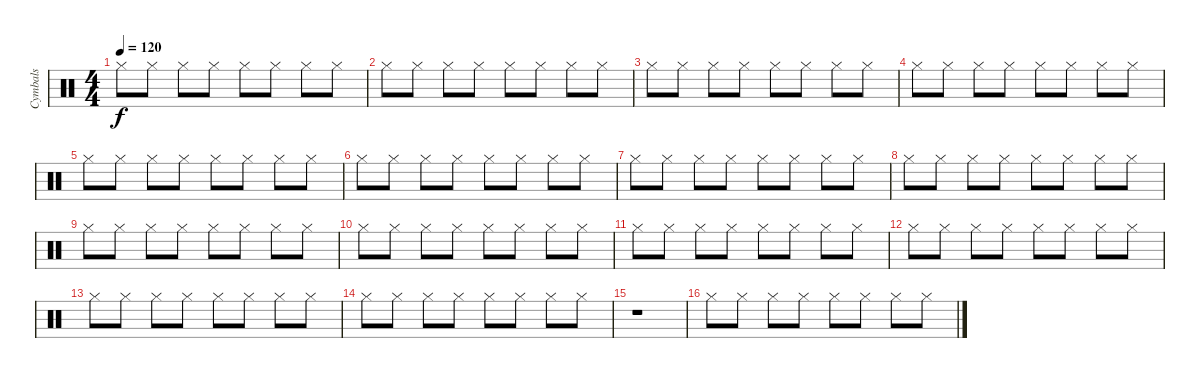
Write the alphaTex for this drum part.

\track ("Cymbals" "Cymbals") {instrument percussion}
\staff {score}
\articulation defaults
\ts (4 4)
\tempo 120
\clef neutral
\ks c "Hi-Hat (closed)".8{dy f} "Hi-Hat (closed)".8 "Hi-Hat (closed)".8 "Hi-Hat (closed)".8 "Hi-Hat (closed)".8 "Hi-Hat (closed)".8 "Hi-Hat (closed)".8 "Hi-Hat (closed)".8
|
"Hi-Hat (closed)".8 "Hi-Hat (closed)".8 "Hi-Hat (closed)".8 "Hi-Hat (closed)".8 "Hi-Hat (closed)".8 "Hi-Hat (closed)".8 "Hi-Hat (closed)".8 "Hi-Hat (closed)".8 |
"Hi-Hat (closed)".8 "Hi-Hat (closed)".8 "Hi-Hat (closed)".8 "Hi-Hat (closed)".8 "Hi-Hat (closed)".8 "Hi-Hat (closed)".8 "Hi-Hat (closed)".8 "Hi-Hat (closed)".8 |
"Hi-Hat (closed)".8 "Hi-Hat (closed)".8 "Hi-Hat (closed)".8 "Hi-Hat (closed)".8 "Hi-Hat (closed)".8 "Hi-Hat (closed)".8 "Hi-Hat (closed)".8 "Hi-Hat (closed)".8 |
"Hi-Hat (closed)".8 "Hi-Hat (closed)".8 "Hi-Hat (closed)".8 "Hi-Hat (closed)".8 "Hi-Hat (closed)".8 "Hi-Hat (closed)".8 "Hi-Hat (closed)".8 "Hi-Hat (closed)".8 |
"Hi-Hat (closed)".8 "Hi-Hat (closed)".8 "Hi-Hat (closed)".8 "Hi-Hat (closed)".8 "Hi-Hat (closed)".8 "Hi-Hat (closed)".8 "Hi-Hat (closed)".8 "Hi-Hat (closed)".8 |
"Hi-Hat (closed)".8 "Hi-Hat (closed)".8 "Hi-Hat (closed)".8 "Hi-Hat (closed)".8 "Hi-Hat (closed)".8 "Hi-Hat (closed)".8 "Hi-Hat (closed)".8 "Hi-Hat (closed)".8 |
"Hi-Hat (closed)".8 "Hi-Hat (closed)".8 "Hi-Hat (closed)".8 "Hi-Hat (closed)".8 "Hi-Hat (closed)".8 "Hi-Hat (closed)".8 "Hi-Hat (closed)".8 "Hi-Hat (closed)".8 |
"Hi-Hat (closed)".8 "Hi-Hat (closed)".8 "Hi-Hat (closed)".8 "Hi-Hat (closed)".8 "Hi-Hat (closed)".8 "Hi-Hat (closed)".8 "Hi-Hat (closed)".8 "Hi-Hat (closed)".8 |
"Hi-Hat (closed)".8 "Hi-Hat (closed)".8 "Hi-Hat (closed)".8 "Hi-Hat (closed)".8 "Hi-Hat (closed)".8 "Hi-Hat (closed)".8 "Hi-Hat (closed)".8 "Hi-Hat (closed)".8 |
"Hi-Hat (closed)".8 "Hi-Hat (closed)".8 "Hi-Hat (closed)".8 "Hi-Hat (closed)".8 "Hi-Hat (closed)".8 "Hi-Hat (closed)".8 "Hi-Hat (closed)".8 "Hi-Hat (closed)".8 |
"Hi-Hat (closed)".8 "Hi-Hat (closed)".8 "Hi-Hat (closed)".8 "Hi-Hat (closed)".8 "Hi-Hat (closed)".8 "Hi-Hat (closed)".8 "Hi-Hat (closed)".8 "Hi-Hat (closed)".8 |
"Hi-Hat (closed)".8 "Hi-Hat (closed)".8 "Hi-Hat (closed)".8 "Hi-Hat (closed)".8 "Hi-Hat (closed)".8 "Hi-Hat (closed)".8 "Hi-Hat (closed)".8 "Hi-Hat (closed)".8 |
"Hi-Hat (closed)".8 "Hi-Hat (closed)".8 "Hi-Hat (closed)".8 "Hi-Hat (closed)".8 "Hi-Hat (closed)".8 "Hi-Hat (closed)".8 "Hi-Hat (closed)".8 "Hi-Hat (closed)".8 |
r.1 |
"Hi-Hat (closed)".8 "Hi-Hat (closed)".8 "Hi-Hat (closed)".8 "Hi-Hat (closed)".8 "Hi-Hat (closed)".8 "Hi-Hat (closed)".8 "Hi-Hat (closed)".8 "Hi-Hat (closed)".8
